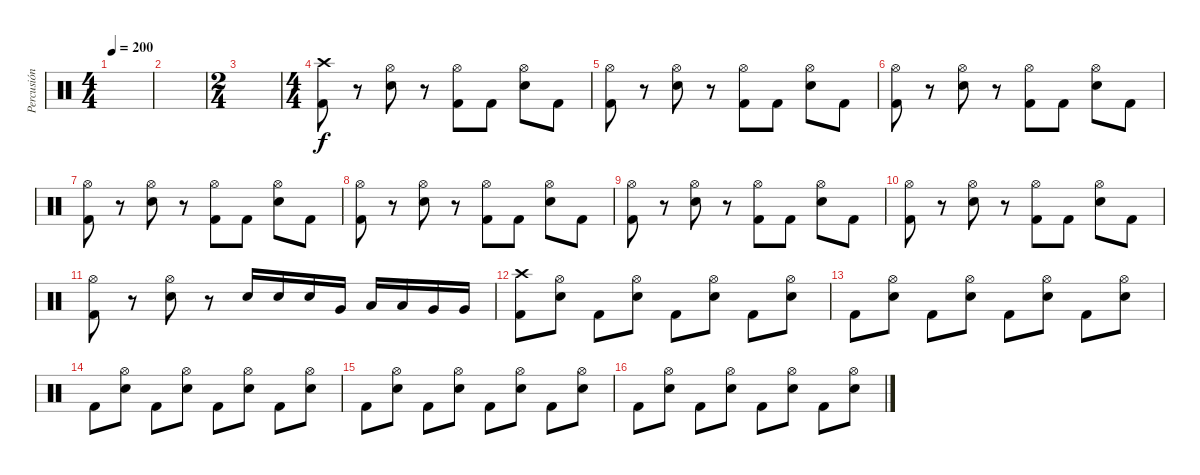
\track ("Percusión" "Percusión") {instrument percussion}
\staff {score}
\articulation defaults
\ts (4 4)
\tempo 200
\clef neutral
\ks c
|
|
\ts (2 4)
|
\ts (4 4)
("Crash high (hit)" "Kick (hit) 2").8 r.8 ("Hi-Hat (open)" "Electric Snare (hit)").8 r.8 ("Hi-Hat (open)" "Kick (hit) 2").8 "Kick (hit) 2".8 ("Hi-Hat (open)" "Electric Snare (hit)").8 "Kick (hit) 2".8 |
("Hi-Hat (open)" "Kick (hit) 2").8 r.8 ("Hi-Hat (open)" "Electric Snare (hit)").8 r.8 ("Hi-Hat (open)" "Kick (hit) 2").8 "Kick (hit) 2".8 ("Hi-Hat (open)" "Electric Snare (hit)").8 "Kick (hit) 2".8 |
("Hi-Hat (open)" "Kick (hit) 2").8 r.8 ("Hi-Hat (open)" "Electric Snare (hit)").8 r.8 ("Hi-Hat (open)" "Kick (hit) 2").8 "Kick (hit) 2".8 ("Hi-Hat (open)" "Electric Snare (hit)").8 "Kick (hit) 2".8 |
("Hi-Hat (open)" "Kick (hit) 2").8 r.8 ("Hi-Hat (open)" "Electric Snare (hit)").8 r.8 ("Hi-Hat (open)" "Kick (hit) 2").8 "Kick (hit) 2".8 ("Hi-Hat (open)" "Electric Snare (hit)").8 "Kick (hit) 2".8 |
("Hi-Hat (open)" "Kick (hit) 2").8 r.8 ("Hi-Hat (open)" "Electric Snare (hit)").8 r.8 ("Hi-Hat (open)" "Kick (hit) 2").8 "Kick (hit) 2".8 ("Hi-Hat (open)" "Electric Snare (hit)").8 "Kick (hit) 2".8 |
("Hi-Hat (open)" "Kick (hit) 2").8 r.8 ("Hi-Hat (open)" "Electric Snare (hit)").8 r.8 ("Hi-Hat (open)" "Kick (hit) 2").8 "Kick (hit) 2".8 ("Hi-Hat (open)" "Electric Snare (hit)").8 "Kick (hit) 2".8 |
("Hi-Hat (open)" "Kick (hit) 2").8 r.8 ("Hi-Hat (open)" "Electric Snare (hit)").8 r.8 ("Hi-Hat (open)" "Kick (hit) 2").8 "Kick (hit) 2".8 ("Hi-Hat (open)" "Electric Snare (hit)").8 "Kick (hit) 2".8 |
("Hi-Hat (open)" "Kick (hit) 2").8 r.8 ("Hi-Hat (open)" "Electric Snare (hit)").8 r.8 "Electric Snare (hit)".16 "Electric Snare (hit)".16 "Electric Snare (hit)".16 "Very Low Tom (hit)".16 "Low Floor Tom (hit)".16 "Low Floor Tom (hit)".16 "Very Low Tom (hit)".16 "Very Low Tom (hit)".16 |
("Crash high (hit)" "Kick (hit) 2").8 ("Hi-Hat (open)" "Electric Snare (hit)").8 "Kick (hit) 2".8 ("Hi-Hat (open)" "Electric Snare (hit)").8 "Kick (hit) 2".8 ("Hi-Hat (open)" "Electric Snare (hit)").8 "Kick (hit) 2".8 ("Hi-Hat (open)" "Electric Snare (hit)").8 |
"Kick (hit) 2".8 ("Hi-Hat (open)" "Electric Snare (hit)").8 "Kick (hit) 2".8 ("Hi-Hat (open)" "Electric Snare (hit)").8 "Kick (hit) 2".8 ("Hi-Hat (open)" "Electric Snare (hit)").8 "Kick (hit) 2".8 ("Hi-Hat (open)" "Electric Snare (hit)").8 |
"Kick (hit) 2".8 ("Hi-Hat (open)" "Electric Snare (hit)").8 "Kick (hit) 2".8 ("Hi-Hat (open)" "Electric Snare (hit)").8 "Kick (hit) 2".8 ("Hi-Hat (open)" "Electric Snare (hit)").8 "Kick (hit) 2".8 ("Hi-Hat (open)" "Electric Snare (hit)").8 |
"Kick (hit) 2".8 ("Hi-Hat (open)" "Electric Snare (hit)").8 "Kick (hit) 2".8 ("Hi-Hat (open)" "Electric Snare (hit)").8 "Kick (hit) 2".8 ("Hi-Hat (open)" "Electric Snare (hit)").8 "Kick (hit) 2".8 ("Hi-Hat (open)" "Electric Snare (hit)").8 |
"Kick (hit) 2".8 ("Hi-Hat (open)" "Electric Snare (hit)").8 "Kick (hit) 2".8 ("Hi-Hat (open)" "Electric Snare (hit)").8 "Kick (hit) 2".8 ("Hi-Hat (open)" "Electric Snare (hit)").8 "Kick (hit) 2".8 ("Hi-Hat (open)" "Electric Snare (hit)").8
